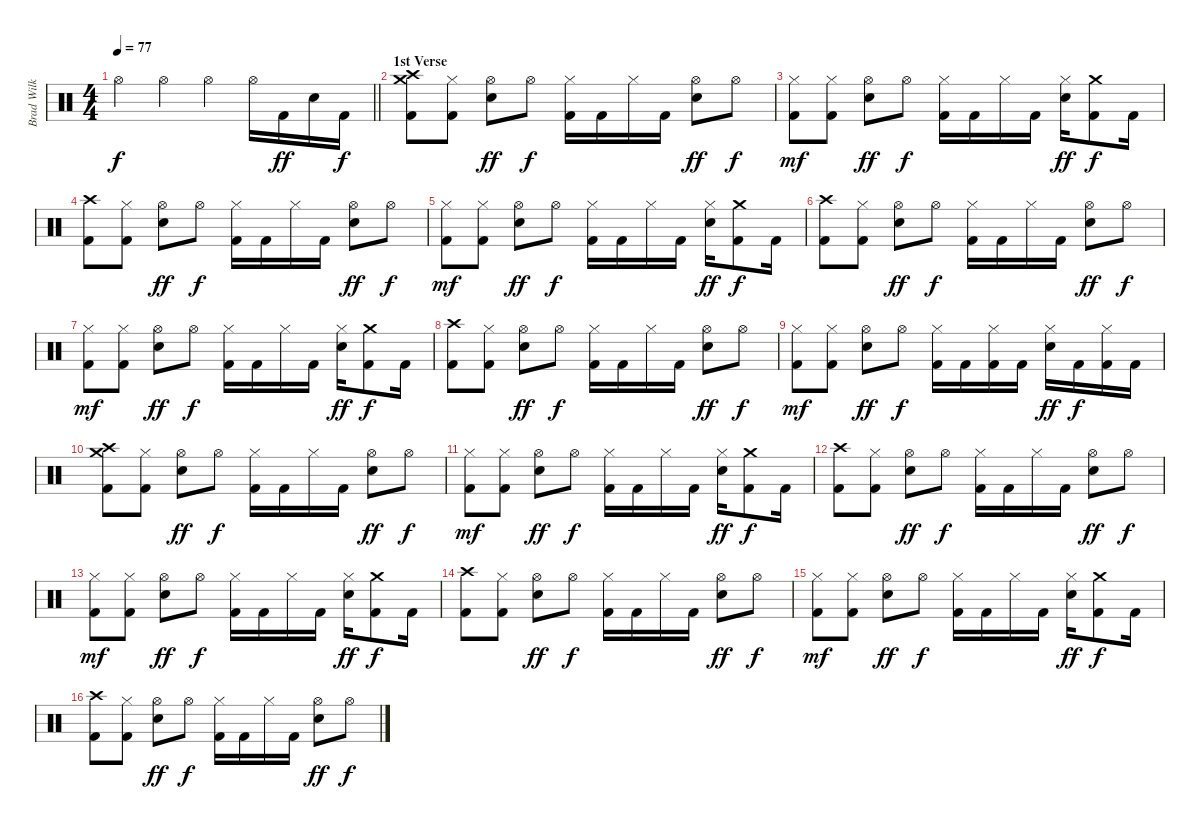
\track ("Brad Wilk / Drums" "Brad Wilk ") {instrument percussion}
\staff {score}
\articulation defaults
\ts (4 4)
\tempo 77
\clef neutral
\barLineRight lightlight
\ks c "Hi-Hat (open)".4{dy f} "Hi-Hat (open)".4 "Hi-Hat (open)".4 "Hi-Hat (open)".16 "Kick (hit) 2".16{dy ff} "Snare (hit) 2".16 "Kick (hit) 2".16{dy f}
|
\section ("" "1st Verse")
("Crash medium (hit)" "Crash high (hit)" "Kick (hit) 2").8 ("Hi-Hat (closed)" "Kick (hit) 2").8 ("Hi-Hat (open)" "Snare (hit) 2").8{dy ff} "Hi-Hat (open)".8{dy f} ("Hi-Hat (closed)" "Kick (hit) 2").16 "Kick (hit) 2".16 "Hi-Hat (closed)".16 "Kick (hit) 2".16 ("Hi-Hat (open)" "Snare (hit) 2").8{dy ff} "Hi-Hat (open)".8{dy f} |
("Hi-Hat (closed)" "Kick (hit) 2").8{dy mf} ("Hi-Hat (closed)" "Kick (hit) 2").8 ("Hi-Hat (open)" "Snare (hit) 2").8{dy ff} "Hi-Hat (open)".8{dy f} ("Hi-Hat (closed)" "Kick (hit) 2").16 "Kick (hit) 2".16 "Hi-Hat (closed)".16 "Kick (hit) 2".16 ("Hi-Hat (closed)" "Snare (hit) 2").16{dy ff} ("Crash medium (hit)" "Kick (hit) 2").8{dy f} "Kick (hit) 2".16 |
("Crash high (hit)" "Kick (hit) 2").8 ("Hi-Hat (closed)" "Kick (hit) 2").8 ("Hi-Hat (open)" "Snare (hit) 2").8{dy ff} "Hi-Hat (open)".8{dy f} ("Hi-Hat (closed)" "Kick (hit) 2").16 "Kick (hit) 2".16 "Hi-Hat (closed)".16 "Kick (hit) 2".16 ("Hi-Hat (open)" "Snare (hit) 2").8{dy ff} "Hi-Hat (open)".8{dy f} |
("Hi-Hat (closed)" "Kick (hit) 2").8{dy mf} ("Hi-Hat (closed)" "Kick (hit) 2").8 ("Hi-Hat (open)" "Snare (hit) 2").8{dy ff} "Hi-Hat (open)".8{dy f} ("Hi-Hat (closed)" "Kick (hit) 2").16 "Kick (hit) 2".16 "Hi-Hat (closed)".16 "Kick (hit) 2".16 ("Hi-Hat (closed)" "Snare (hit) 2").16{dy ff} ("Crash medium (hit)" "Kick (hit) 2").8{dy f} "Kick (hit) 2".16 |
("Crash high (hit)" "Kick (hit) 2").8 ("Hi-Hat (closed)" "Kick (hit) 2").8 ("Hi-Hat (open)" "Snare (hit) 2").8{dy ff} "Hi-Hat (open)".8{dy f} ("Hi-Hat (closed)" "Kick (hit) 2").16 "Kick (hit) 2".16 "Hi-Hat (closed)".16 "Kick (hit) 2".16 ("Hi-Hat (open)" "Snare (hit) 2").8{dy ff} "Hi-Hat (open)".8{dy f} |
("Hi-Hat (closed)" "Kick (hit) 2").8{dy mf} ("Hi-Hat (closed)" "Kick (hit) 2").8 ("Hi-Hat (open)" "Snare (hit) 2").8{dy ff} "Hi-Hat (open)".8{dy f} ("Hi-Hat (closed)" "Kick (hit) 2").16 "Kick (hit) 2".16 "Hi-Hat (closed)".16 "Kick (hit) 2".16 ("Hi-Hat (closed)" "Snare (hit) 2").16{dy ff} ("Crash medium (hit)" "Kick (hit) 2").8{dy f} "Kick (hit) 2".16 |
("Crash high (hit)" "Kick (hit) 2").8 ("Hi-Hat (closed)" "Kick (hit) 2").8 ("Hi-Hat (open)" "Snare (hit) 2").8{dy ff} "Hi-Hat (open)".8{dy f} ("Hi-Hat (closed)" "Kick (hit) 2").16 "Kick (hit) 2".16 "Hi-Hat (closed)".16 "Kick (hit) 2".16 ("Hi-Hat (open)" "Snare (hit) 2").8{dy ff} "Hi-Hat (open)".8{dy f} |
("Hi-Hat (closed)" "Kick (hit) 2").8{dy mf} ("Hi-Hat (closed)" "Kick (hit) 2").8 ("Hi-Hat (open)" "Snare (hit) 2").8{dy ff} "Hi-Hat (open)".8{dy f} ("Hi-Hat (closed)" "Kick (hit) 2").16 "Kick (hit) 2".16 ("Hi-Hat (closed)" "Kick (hit) 2").16 "Kick (hit) 2".16 ("Hi-Hat (closed)" "Snare (hit) 2").16{dy ff} "Kick (hit) 2".16{dy f} ("Hi-Hat (closed)" "Kick (hit) 2").16 "Kick (hit) 2".16 |
("Crash medium (hit)" "Crash high (hit)" "Kick (hit) 2").8 ("Hi-Hat (closed)" "Kick (hit) 2").8 ("Hi-Hat (open)" "Snare (hit) 2").8{dy ff} "Hi-Hat (open)".8{dy f} ("Hi-Hat (closed)" "Kick (hit) 2").16 "Kick (hit) 2".16 "Hi-Hat (closed)".16 "Kick (hit) 2".16 ("Hi-Hat (open)" "Snare (hit) 2").8{dy ff} "Hi-Hat (open)".8{dy f} |
("Hi-Hat (closed)" "Kick (hit) 2").8{dy mf} ("Hi-Hat (closed)" "Kick (hit) 2").8 ("Hi-Hat (open)" "Snare (hit) 2").8{dy ff} "Hi-Hat (open)".8{dy f} ("Hi-Hat (closed)" "Kick (hit) 2").16 "Kick (hit) 2".16 "Hi-Hat (closed)".16 "Kick (hit) 2".16 ("Hi-Hat (closed)" "Snare (hit) 2").16{dy ff} ("Crash medium (hit)" "Kick (hit) 2").8{dy f} "Kick (hit) 2".16 |
("Crash high (hit)" "Kick (hit) 2").8 ("Hi-Hat (closed)" "Kick (hit) 2").8 ("Hi-Hat (open)" "Snare (hit) 2").8{dy ff} "Hi-Hat (open)".8{dy f} ("Hi-Hat (closed)" "Kick (hit) 2").16 "Kick (hit) 2".16 "Hi-Hat (closed)".16 "Kick (hit) 2".16 ("Hi-Hat (open)" "Snare (hit) 2").8{dy ff} "Hi-Hat (open)".8{dy f} |
("Hi-Hat (closed)" "Kick (hit) 2").8{dy mf} ("Hi-Hat (closed)" "Kick (hit) 2").8 ("Hi-Hat (open)" "Snare (hit) 2").8{dy ff} "Hi-Hat (open)".8{dy f} ("Hi-Hat (closed)" "Kick (hit) 2").16 "Kick (hit) 2".16 "Hi-Hat (closed)".16 "Kick (hit) 2".16 ("Hi-Hat (closed)" "Snare (hit) 2").16{dy ff} ("Crash medium (hit)" "Kick (hit) 2").8{dy f} "Kick (hit) 2".16 |
("Crash high (hit)" "Kick (hit) 2").8 ("Hi-Hat (closed)" "Kick (hit) 2").8 ("Hi-Hat (open)" "Snare (hit) 2").8{dy ff} "Hi-Hat (open)".8{dy f} ("Hi-Hat (closed)" "Kick (hit) 2").16 "Kick (hit) 2".16 "Hi-Hat (closed)".16 "Kick (hit) 2".16 ("Hi-Hat (open)" "Snare (hit) 2").8{dy ff} "Hi-Hat (open)".8{dy f} |
("Hi-Hat (closed)" "Kick (hit) 2").8{dy mf} ("Hi-Hat (closed)" "Kick (hit) 2").8 ("Hi-Hat (open)" "Snare (hit) 2").8{dy ff} "Hi-Hat (open)".8{dy f} ("Hi-Hat (closed)" "Kick (hit) 2").16 "Kick (hit) 2".16 "Hi-Hat (closed)".16 "Kick (hit) 2".16 ("Hi-Hat (closed)" "Snare (hit) 2").16{dy ff} ("Crash medium (hit)" "Kick (hit) 2").8{dy f} "Kick (hit) 2".16 |
("Crash high (hit)" "Kick (hit) 2").8 ("Hi-Hat (closed)" "Kick (hit) 2").8 ("Hi-Hat (open)" "Snare (hit) 2").8{dy ff} "Hi-Hat (open)".8{dy f} ("Hi-Hat (closed)" "Kick (hit) 2").16 "Kick (hit) 2".16 "Hi-Hat (closed)".16 "Kick (hit) 2".16 ("Hi-Hat (open)" "Snare (hit) 2").8{dy ff} "Hi-Hat (open)".8{dy f}
